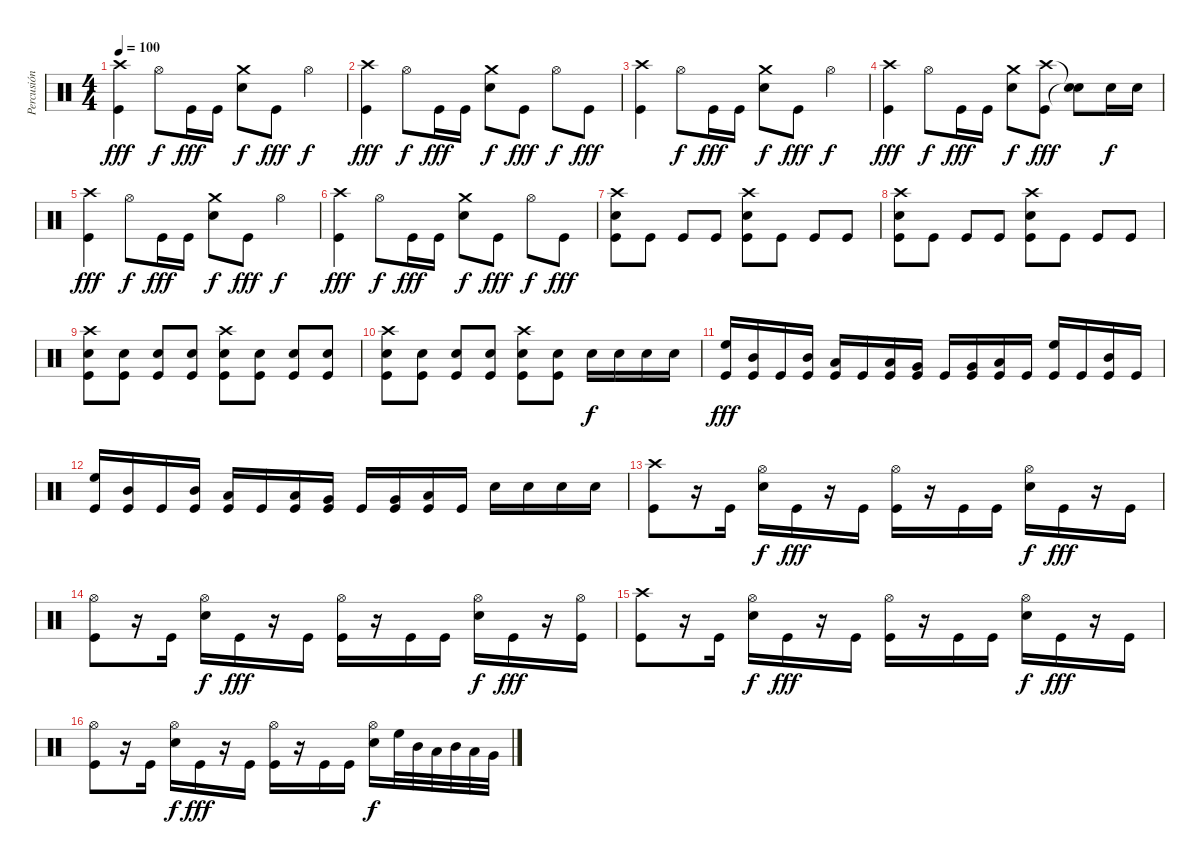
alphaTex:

\track ("Percusión" "Percusión") {instrument percussion}
\staff {score}
\articulation defaults
\ts (4 4)
\tempo 100
\clef neutral
\ks c
("Crash high (hit)" "Kick (hit)").4{dy fff} "Hi-Hat (open)".8{dy f} "Kick (hit)".16{dy fff} "Kick (hit)".16 ("Crash medium (hit)" "Electric Snare (hit)").8{dy f} "Kick (hit)".8{dy fff} "Hi-Hat (open)".4{dy f} |
("Crash high (hit)" "Kick (hit)").4{dy fff} "Hi-Hat (open)".8{dy f} "Kick (hit)".16{dy fff} "Kick (hit)".16 ("Crash medium (hit)" "Electric Snare (hit)").8{dy f} "Kick (hit)".8{dy fff} "Hi-Hat (open)".8{dy f} "Kick (hit)".8{dy fff} |
("Crash high (hit)" "Kick (hit)").4 "Hi-Hat (open)".8{dy f} "Kick (hit)".16{dy fff} "Kick (hit)".16 ("Crash medium (hit)" "Electric Snare (hit)").8{dy f} "Kick (hit)".8{dy fff} "Hi-Hat (open)".4{dy f} |
("Crash high (hit)" "Kick (hit)").4{dy fff} "Hi-Hat (open)".8{dy f} "Kick (hit)".16{dy fff} "Kick (hit)".16 ("Crash medium (hit)" "Electric Snare (hit)").8{dy f} ("Crash high (hit)" "Kick (hit)").8{dy fff} ("Snare (hit)"{t} "Snare (hit)"{t}).8 "Electric Snare (hit)".16{dy f} "Electric Snare (hit)".16 |
("Crash high (hit)" "Kick (hit)").4{dy fff} "Hi-Hat (open)".8{dy f} "Kick (hit)".16{dy fff} "Kick (hit)".16 ("Crash medium (hit)" "Electric Snare (hit)").8{dy f} "Kick (hit)".8{dy fff} "Hi-Hat (open)".4{dy f} |
("Crash high (hit)" "Kick (hit)").4{dy fff} "Hi-Hat (open)".8{dy f} "Kick (hit)".16{dy fff} "Kick (hit)".16 ("Crash medium (hit)" "Electric Snare (hit)").8{dy f} "Kick (hit)".8{dy fff} "Hi-Hat (open)".8{dy f} "Kick (hit)".8{dy fff} |
("Crash high (hit)" "Electric Snare (hit)" "Kick (hit)").8 "Kick (hit)".8 "Kick (hit)".8 "Kick (hit)".8 ("Crash high (hit)" "Electric Snare (hit)" "Kick (hit)").8 "Kick (hit)".8 "Kick (hit)".8 "Kick (hit)".8 |
("Crash high (hit)" "Electric Snare (hit)" "Kick (hit)").8 "Kick (hit)".8 "Kick (hit)".8 "Kick (hit)".8 ("Crash high (hit)" "Electric Snare (hit)" "Kick (hit)").8 "Kick (hit)".8 "Kick (hit)".8 "Kick (hit)".8 |
("Crash high (hit)" "Electric Snare (hit)" "Kick (hit)").8 ("Electric Snare (hit)" "Kick (hit)").8 ("Electric Snare (hit)" "Kick (hit)").8 ("Electric Snare (hit)" "Kick (hit)").8 ("Crash high (hit)" "Electric Snare (hit)" "Kick (hit)").8 ("Electric Snare (hit)" "Kick (hit)").8 ("Electric Snare (hit)" "Kick (hit)").8 ("Electric Snare (hit)" "Kick (hit)").8 |
("Crash high (hit)" "Electric Snare (hit)" "Kick (hit)").8 ("Electric Snare (hit)" "Kick (hit)").8 ("Electric Snare (hit)" "Kick (hit)").8 ("Electric Snare (hit)" "Kick (hit)").8 ("Crash high (hit)" "Electric Snare (hit)" "Kick (hit)").8 ("Electric Snare (hit)" "Kick (hit)").8 "Electric Snare (hit)".16{dy f} "Electric Snare (hit)".16 "Electric Snare (hit)".16 "Electric Snare (hit)".16 |
("High Floor Tom (hit)" "Kick (hit)").16{dy fff} ("Mid Tom (hit)" "Kick (hit)").16 "Kick (hit)".16 ("Mid Tom (hit)" "Kick (hit)").16 ("Low Tom (hit)" "Kick (hit)").16 "Kick (hit)".16 ("Low Tom (hit)" "Kick (hit)").16 ("Very Low Tom (hit)" "Kick (hit)").16 "Kick (hit)".16 ("Very Low Tom (hit)" "Kick (hit)").16 ("Low Floor Tom (hit)" "Kick (hit)").16 "Kick (hit)".16 ("High Floor Tom (hit)" "Kick (hit)").16 "Kick (hit)".16 ("Mid Tom (hit)" "Kick (hit)").16 "Kick (hit)".16 |
("High Floor Tom (hit)" "Kick (hit)").16 ("Mid Tom (hit)" "Kick (hit)").16 "Kick (hit)".16 ("Mid Tom (hit)" "Kick (hit)").16 ("Low Tom (hit)" "Kick (hit)").16 "Kick (hit)".16 ("Low Tom (hit)" "Kick (hit)").16 ("Very Low Tom (hit)" "Kick (hit)").16 "Kick (hit)".16 ("Very Low Tom (hit)" "Kick (hit)").16 ("Low Floor Tom (hit)" "Kick (hit)").16 "Kick (hit)".16 "Electric Snare (hit)".16 "Electric Snare (hit)".16 "Electric Snare (hit)".16 "Electric Snare (hit)".16 |
("Crash high (hit)" "Kick (hit)").8 r.16 "Kick (hit)".16 ("Hi-Hat (open)" "Electric Snare (hit)").16{dy f} "Kick (hit)".16{dy fff} r.16 "Kick (hit)".16 ("Hi-Hat (open)" "Kick (hit)").16 r.16 "Kick (hit)".16 "Kick (hit)".16 ("Hi-Hat (open)" "Electric Snare (hit)").16{dy f} "Kick (hit)".16{dy fff} r.16 "Kick (hit)".16 |
("Hi-Hat (open)" "Kick (hit)").8 r.16 "Kick (hit)".16 ("Hi-Hat (open)" "Electric Snare (hit)").16{dy f} "Kick (hit)".16{dy fff} r.16 "Kick (hit)".16 ("Hi-Hat (open)" "Kick (hit)").16 r.16 "Kick (hit)".16 "Kick (hit)".16 ("Hi-Hat (open)" "Electric Snare (hit)").16{dy f} "Kick (hit)".16{dy fff} r.16 ("Hi-Hat (open)" "Kick (hit)").16 |
("Crash high (hit)" "Kick (hit)").8 r.16 "Kick (hit)".16 ("Hi-Hat (open)" "Electric Snare (hit)").16{dy f} "Kick (hit)".16{dy fff} r.16 "Kick (hit)".16 ("Hi-Hat (open)" "Kick (hit)").16 r.16 "Kick (hit)".16 "Kick (hit)".16 ("Hi-Hat (open)" "Electric Snare (hit)").16{dy f} "Kick (hit)".16{dy fff} r.16 "Kick (hit)".16 |
("Hi-Hat (open)" "Kick (hit)").8 r.16 "Kick (hit)".16 ("Hi-Hat (open)" "Electric Snare (hit)").16{dy f} "Kick (hit)".16{dy fff} r.16 "Kick (hit)".16 ("Hi-Hat (open)" "Kick (hit)").16 r.16 "Kick (hit)".16 "Kick (hit)".16 ("Hi-Hat (open)" "Electric Snare (hit)").16{dy f} "High Floor Tom (hit)".32 "Mid Tom (hit)".32 "Low Tom (hit)".32 "Mid Tom (hit)".32 "Low Tom (hit)".32 "Very Low Tom (hit)".32
